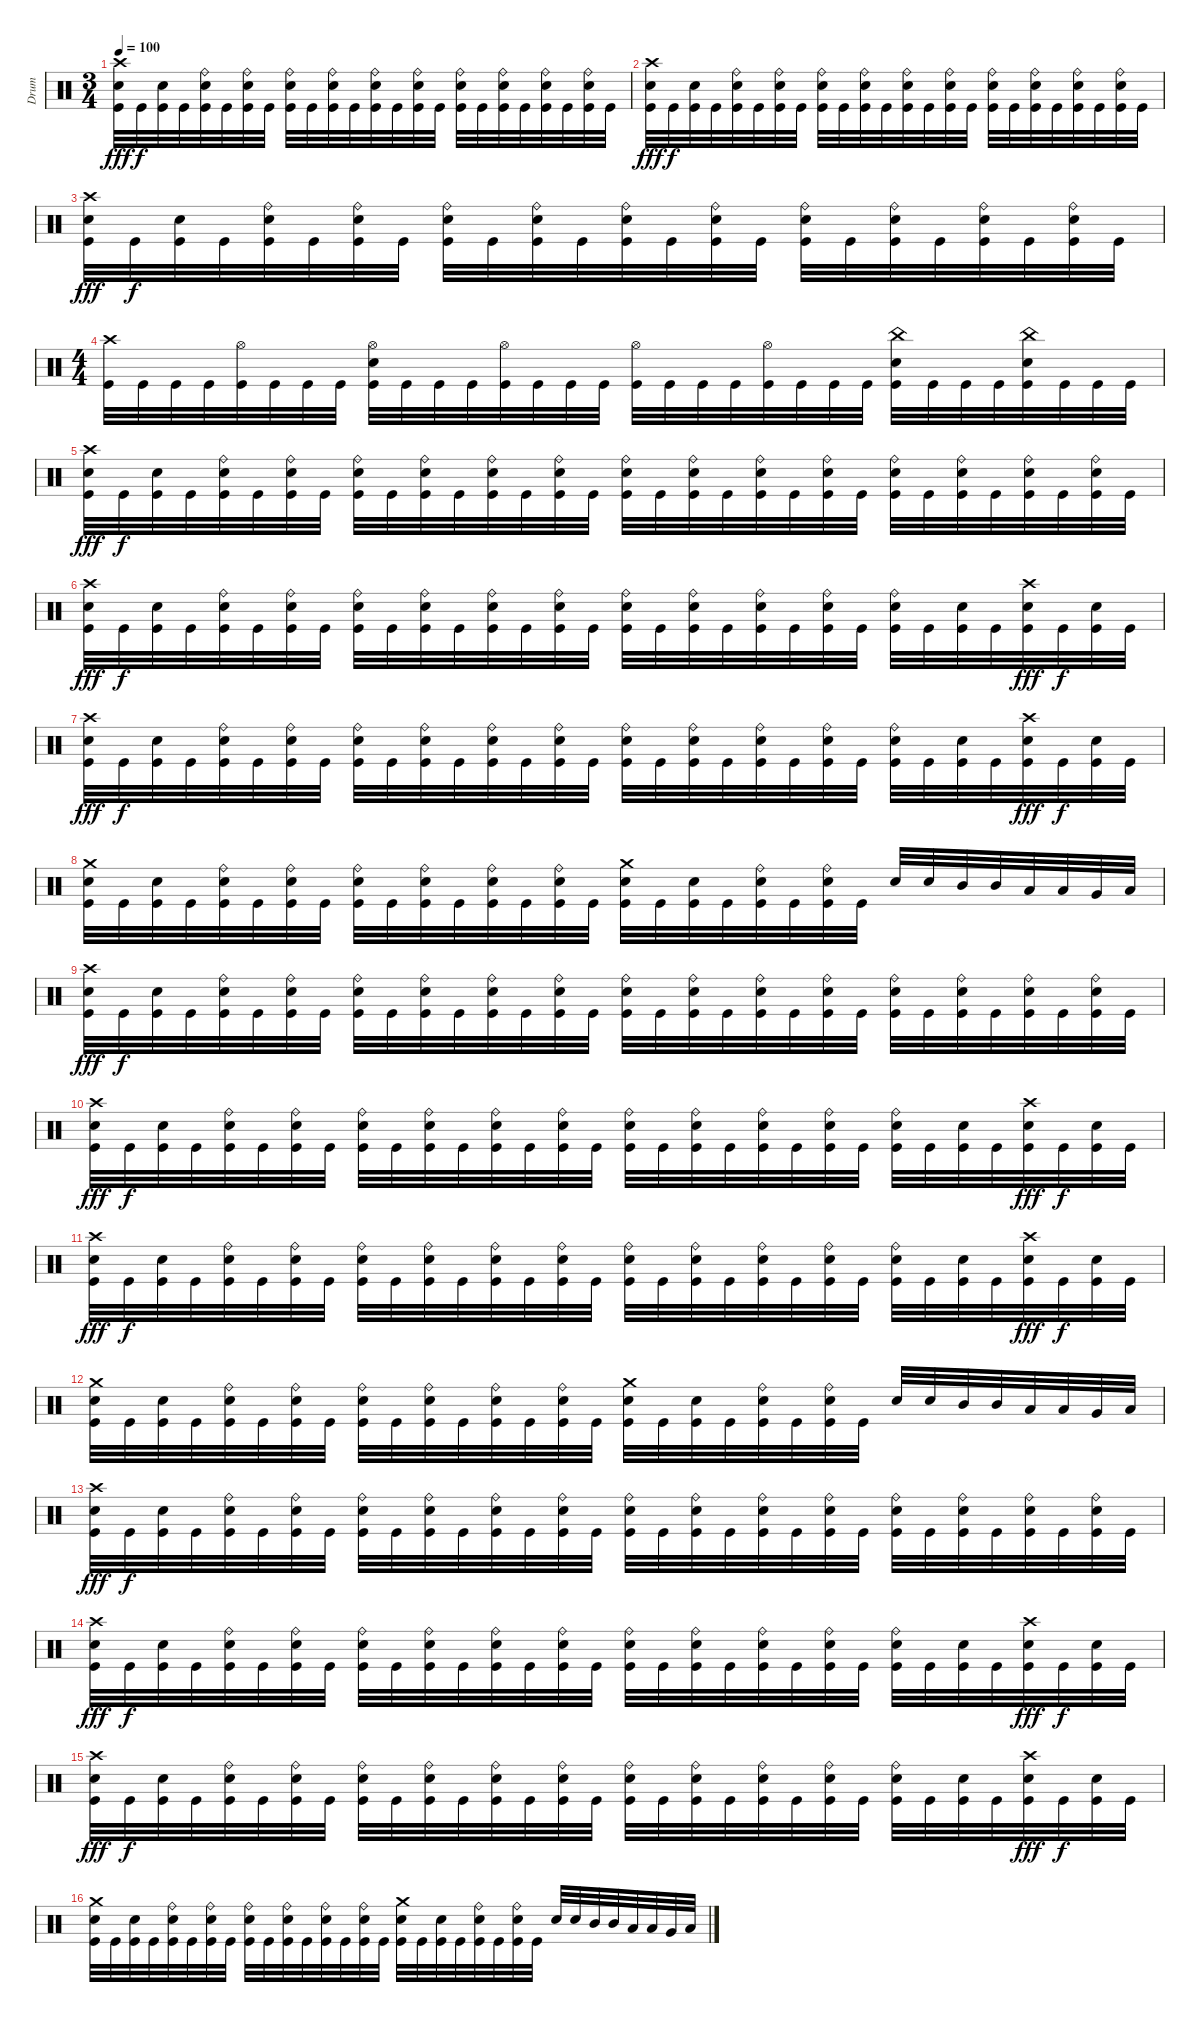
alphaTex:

\track ("Drum" "Drum") {instrument percussion}
\staff {score}
\articulation defaults
\ts (3 4)
\tempo 100
\clef neutral
\ks c
("Crash high (hit)" "Electric Snare (hit)" "Kick (hit)").32{dy fff} "Kick (hit)".32{dy f} ("Electric Snare (hit)" "Kick (hit)").32 "Kick (hit)".32 ("Ride (bell)" "Electric Snare (hit)" "Kick (hit)").32 "Kick (hit)".32 ("Ride (bell)" "Electric Snare (hit)" "Kick (hit)").32 "Kick (hit)".32 ("Ride (bell)" "Electric Snare (hit)" "Kick (hit)").32 "Kick (hit)".32 ("Ride (bell)" "Electric Snare (hit)" "Kick (hit)").32 "Kick (hit)".32 ("Ride (bell)" "Electric Snare (hit)" "Kick (hit)").32 "Kick (hit)".32 ("Ride (bell)" "Electric Snare (hit)" "Kick (hit)").32 "Kick (hit)".32 ("Ride (bell)" "Electric Snare (hit)" "Kick (hit)").32 "Kick (hit)".32 ("Ride (bell)" "Electric Snare (hit)" "Kick (hit)").32 "Kick (hit)".32 ("Ride (bell)" "Electric Snare (hit)" "Kick (hit)").32 "Kick (hit)".32 ("Ride (bell)" "Electric Snare (hit)" "Kick (hit)").32 "Kick (hit)".32 |
("Crash high (hit)" "Electric Snare (hit)" "Kick (hit)").32{dy fff} "Kick (hit)".32{dy f} ("Electric Snare (hit)" "Kick (hit)").32 "Kick (hit)".32 ("Ride (bell)" "Electric Snare (hit)" "Kick (hit)").32 "Kick (hit)".32 ("Ride (bell)" "Electric Snare (hit)" "Kick (hit)").32 "Kick (hit)".32 ("Ride (bell)" "Electric Snare (hit)" "Kick (hit)").32 "Kick (hit)".32 ("Ride (bell)" "Electric Snare (hit)" "Kick (hit)").32 "Kick (hit)".32 ("Ride (bell)" "Electric Snare (hit)" "Kick (hit)").32 "Kick (hit)".32 ("Ride (bell)" "Electric Snare (hit)" "Kick (hit)").32 "Kick (hit)".32 ("Ride (bell)" "Electric Snare (hit)" "Kick (hit)").32 "Kick (hit)".32 ("Ride (bell)" "Electric Snare (hit)" "Kick (hit)").32 "Kick (hit)".32 ("Ride (bell)" "Electric Snare (hit)" "Kick (hit)").32 "Kick (hit)".32 ("Ride (bell)" "Electric Snare (hit)" "Kick (hit)").32 "Kick (hit)".32 |
("Crash high (hit)" "Electric Snare (hit)" "Kick (hit)").32{dy fff} "Kick (hit)".32{dy f} ("Electric Snare (hit)" "Kick (hit)").32 "Kick (hit)".32 ("Ride (bell)" "Electric Snare (hit)" "Kick (hit)").32 "Kick (hit)".32 ("Ride (bell)" "Electric Snare (hit)" "Kick (hit)").32 "Kick (hit)".32 ("Ride (bell)" "Electric Snare (hit)" "Kick (hit)").32 "Kick (hit)".32 ("Ride (bell)" "Electric Snare (hit)" "Kick (hit)").32 "Kick (hit)".32 ("Ride (bell)" "Electric Snare (hit)" "Kick (hit)").32 "Kick (hit)".32 ("Ride (bell)" "Electric Snare (hit)" "Kick (hit)").32 "Kick (hit)".32 ("Ride (bell)" "Electric Snare (hit)" "Kick (hit)").32 "Kick (hit)".32 ("Ride (bell)" "Electric Snare (hit)" "Kick (hit)").32 "Kick (hit)".32 ("Ride (bell)" "Electric Snare (hit)" "Kick (hit)").32 "Kick (hit)".32 ("Ride (bell)" "Electric Snare (hit)" "Kick (hit)").32 "Kick (hit)".32 |
\ts (4 4)
("Crash high (hit)" "Kick (hit)").32 "Kick (hit)".32 "Kick (hit)".32 "Kick (hit)".32 ("Hi-Hat (open)" "Kick (hit)").32 "Kick (hit)".32 "Kick (hit)".32 "Kick (hit)".32 ("Hi-Hat (open)" "Electric Snare (hit)" "Kick (hit)").32 "Kick (hit)".32 "Kick (hit)".32 "Kick (hit)".32 ("Hi-Hat (open)" "Kick (hit)").32 "Kick (hit)".32 "Kick (hit)".32 "Kick (hit)".32 ("Hi-Hat (open)" "Kick (hit)").32 "Kick (hit)".32 "Kick (hit)".32 "Kick (hit)".32 ("Hi-Hat (open)" "Kick (hit)").32 "Kick (hit)".32 "Kick (hit)".32 "Kick (hit)".32 ("China (hit)" "Electric Snare (hit)" "Kick (hit)").32 "Kick (hit)".32 "Kick (hit)".32 "Kick (hit)".32 ("China (hit)" "Electric Snare (hit)" "Kick (hit)").32 "Kick (hit)".32 "Kick (hit)".32 "Kick (hit)".32 |
("Crash high (hit)" "Electric Snare (hit)" "Kick (hit)").32{dy fff} "Kick (hit)".32{dy f} ("Electric Snare (hit)" "Kick (hit)").32 "Kick (hit)".32 ("Ride (bell)" "Electric Snare (hit)" "Kick (hit)").32 "Kick (hit)".32 ("Ride (bell)" "Electric Snare (hit)" "Kick (hit)").32 "Kick (hit)".32 ("Ride (bell)" "Electric Snare (hit)" "Kick (hit)").32 "Kick (hit)".32 ("Ride (bell)" "Electric Snare (hit)" "Kick (hit)").32 "Kick (hit)".32 ("Ride (bell)" "Electric Snare (hit)" "Kick (hit)").32 "Kick (hit)".32 ("Ride (bell)" "Electric Snare (hit)" "Kick (hit)").32 "Kick (hit)".32 ("Ride (bell)" "Electric Snare (hit)" "Kick (hit)").32 "Kick (hit)".32 ("Ride (bell)" "Electric Snare (hit)" "Kick (hit)").32 "Kick (hit)".32 ("Ride (bell)" "Electric Snare (hit)" "Kick (hit)").32 "Kick (hit)".32 ("Ride (bell)" "Electric Snare (hit)" "Kick (hit)").32 "Kick (hit)".32 ("Ride (bell)" "Electric Snare (hit)" "Kick (hit)").32 "Kick (hit)".32 ("Ride (bell)" "Electric Snare (hit)" "Kick (hit)").32 "Kick (hit)".32 ("Ride (bell)" "Electric Snare (hit)" "Kick (hit)").32 "Kick (hit)".32 ("Ride (bell)" "Electric Snare (hit)" "Kick (hit)").32 "Kick (hit)".32 |
("Crash high (hit)" "Electric Snare (hit)" "Kick (hit)").32{dy fff} "Kick (hit)".32{dy f} ("Electric Snare (hit)" "Kick (hit)").32 "Kick (hit)".32 ("Ride (bell)" "Electric Snare (hit)" "Kick (hit)").32 "Kick (hit)".32 ("Ride (bell)" "Electric Snare (hit)" "Kick (hit)").32 "Kick (hit)".32 ("Ride (bell)" "Electric Snare (hit)" "Kick (hit)").32 "Kick (hit)".32 ("Ride (bell)" "Electric Snare (hit)" "Kick (hit)").32 "Kick (hit)".32 ("Ride (bell)" "Electric Snare (hit)" "Kick (hit)").32 "Kick (hit)".32 ("Ride (bell)" "Electric Snare (hit)" "Kick (hit)").32 "Kick (hit)".32 ("Ride (bell)" "Electric Snare (hit)" "Kick (hit)").32 "Kick (hit)".32 ("Ride (bell)" "Electric Snare (hit)" "Kick (hit)").32 "Kick (hit)".32 ("Ride (bell)" "Electric Snare (hit)" "Kick (hit)").32 "Kick (hit)".32 ("Ride (bell)" "Electric Snare (hit)" "Kick (hit)").32 "Kick (hit)".32 ("Ride (bell)" "Electric Snare (hit)" "Kick (hit)").32 "Kick (hit)".32 ("Electric Snare (hit)" "Kick (hit)").32 "Kick (hit)".32 ("Crash high (hit)" "Electric Snare (hit)" "Kick (hit)").32{dy fff} "Kick (hit)".32{dy f} ("Electric Snare (hit)" "Kick (hit)").32 "Kick (hit)".32 |
("Crash high (hit)" "Electric Snare (hit)" "Kick (hit)").32{dy fff} "Kick (hit)".32{dy f} ("Electric Snare (hit)" "Kick (hit)").32 "Kick (hit)".32 ("Ride (bell)" "Electric Snare (hit)" "Kick (hit)").32 "Kick (hit)".32 ("Ride (bell)" "Electric Snare (hit)" "Kick (hit)").32 "Kick (hit)".32 ("Ride (bell)" "Electric Snare (hit)" "Kick (hit)").32 "Kick (hit)".32 ("Ride (bell)" "Electric Snare (hit)" "Kick (hit)").32 "Kick (hit)".32 ("Ride (bell)" "Electric Snare (hit)" "Kick (hit)").32 "Kick (hit)".32 ("Ride (bell)" "Electric Snare (hit)" "Kick (hit)").32 "Kick (hit)".32 ("Ride (bell)" "Electric Snare (hit)" "Kick (hit)").32 "Kick (hit)".32 ("Ride (bell)" "Electric Snare (hit)" "Kick (hit)").32 "Kick (hit)".32 ("Ride (bell)" "Electric Snare (hit)" "Kick (hit)").32 "Kick (hit)".32 ("Ride (bell)" "Electric Snare (hit)" "Kick (hit)").32 "Kick (hit)".32 ("Ride (bell)" "Electric Snare (hit)" "Kick (hit)").32 "Kick (hit)".32 ("Electric Snare (hit)" "Kick (hit)").32 "Kick (hit)".32 ("Crash high (hit)" "Electric Snare (hit)" "Kick (hit)").32{dy fff} "Kick (hit)".32{dy f} ("Electric Snare (hit)" "Kick (hit)").32 "Kick (hit)".32 |
("Crash medium (hit)" "Electric Snare (hit)" "Kick (hit)").32 "Kick (hit)".32 ("Electric Snare (hit)" "Kick (hit)").32 "Kick (hit)".32 ("Ride (bell)" "Electric Snare (hit)" "Kick (hit)").32 "Kick (hit)".32 ("Ride (bell)" "Electric Snare (hit)" "Kick (hit)").32 "Kick (hit)".32 ("Ride (bell)" "Electric Snare (hit)" "Kick (hit)").32 "Kick (hit)".32 ("Ride (bell)" "Electric Snare (hit)" "Kick (hit)").32 "Kick (hit)".32 ("Ride (bell)" "Electric Snare (hit)" "Kick (hit)").32 "Kick (hit)".32 ("Ride (bell)" "Electric Snare (hit)" "Kick (hit)").32 "Kick (hit)".32 ("Crash medium (hit)" "Electric Snare (hit)" "Kick (hit)").32 "Kick (hit)".32 ("Electric Snare (hit)" "Kick (hit)").32 "Kick (hit)".32 ("Ride (bell)" "Electric Snare (hit)" "Kick (hit)").32 "Kick (hit)".32 ("Ride (bell)" "Electric Snare (hit)" "Kick (hit)").32 "Kick (hit)".32 "Electric Snare (hit)".32 "Electric Snare (hit)".32 "Mid Tom (hit)".32 "Mid Tom (hit)".32 "Low Tom (hit)".32 "Low Tom (hit)".32 "Very Low Tom (hit)".32 "Low Floor Tom (hit)".32 |
("Crash high (hit)" "Electric Snare (hit)" "Kick (hit)").32{dy fff} "Kick (hit)".32{dy f} ("Electric Snare (hit)" "Kick (hit)").32 "Kick (hit)".32 ("Ride (bell)" "Electric Snare (hit)" "Kick (hit)").32 "Kick (hit)".32 ("Ride (bell)" "Electric Snare (hit)" "Kick (hit)").32 "Kick (hit)".32 ("Ride (bell)" "Electric Snare (hit)" "Kick (hit)").32 "Kick (hit)".32 ("Ride (bell)" "Electric Snare (hit)" "Kick (hit)").32 "Kick (hit)".32 ("Ride (bell)" "Electric Snare (hit)" "Kick (hit)").32 "Kick (hit)".32 ("Ride (bell)" "Electric Snare (hit)" "Kick (hit)").32 "Kick (hit)".32 ("Ride (bell)" "Electric Snare (hit)" "Kick (hit)").32 "Kick (hit)".32 ("Ride (bell)" "Electric Snare (hit)" "Kick (hit)").32 "Kick (hit)".32 ("Ride (bell)" "Electric Snare (hit)" "Kick (hit)").32 "Kick (hit)".32 ("Ride (bell)" "Electric Snare (hit)" "Kick (hit)").32 "Kick (hit)".32 ("Ride (bell)" "Electric Snare (hit)" "Kick (hit)").32 "Kick (hit)".32 ("Ride (bell)" "Electric Snare (hit)" "Kick (hit)").32 "Kick (hit)".32 ("Ride (bell)" "Electric Snare (hit)" "Kick (hit)").32 "Kick (hit)".32 ("Ride (bell)" "Electric Snare (hit)" "Kick (hit)").32 "Kick (hit)".32 |
("Crash high (hit)" "Electric Snare (hit)" "Kick (hit)").32{dy fff} "Kick (hit)".32{dy f} ("Electric Snare (hit)" "Kick (hit)").32 "Kick (hit)".32 ("Ride (bell)" "Electric Snare (hit)" "Kick (hit)").32 "Kick (hit)".32 ("Ride (bell)" "Electric Snare (hit)" "Kick (hit)").32 "Kick (hit)".32 ("Ride (bell)" "Electric Snare (hit)" "Kick (hit)").32 "Kick (hit)".32 ("Ride (bell)" "Electric Snare (hit)" "Kick (hit)").32 "Kick (hit)".32 ("Ride (bell)" "Electric Snare (hit)" "Kick (hit)").32 "Kick (hit)".32 ("Ride (bell)" "Electric Snare (hit)" "Kick (hit)").32 "Kick (hit)".32 ("Ride (bell)" "Electric Snare (hit)" "Kick (hit)").32 "Kick (hit)".32 ("Ride (bell)" "Electric Snare (hit)" "Kick (hit)").32 "Kick (hit)".32 ("Ride (bell)" "Electric Snare (hit)" "Kick (hit)").32 "Kick (hit)".32 ("Ride (bell)" "Electric Snare (hit)" "Kick (hit)").32 "Kick (hit)".32 ("Ride (bell)" "Electric Snare (hit)" "Kick (hit)").32 "Kick (hit)".32 ("Electric Snare (hit)" "Kick (hit)").32 "Kick (hit)".32 ("Crash high (hit)" "Electric Snare (hit)" "Kick (hit)").32{dy fff} "Kick (hit)".32{dy f} ("Electric Snare (hit)" "Kick (hit)").32 "Kick (hit)".32 |
("Crash high (hit)" "Electric Snare (hit)" "Kick (hit)").32{dy fff} "Kick (hit)".32{dy f} ("Electric Snare (hit)" "Kick (hit)").32 "Kick (hit)".32 ("Ride (bell)" "Electric Snare (hit)" "Kick (hit)").32 "Kick (hit)".32 ("Ride (bell)" "Electric Snare (hit)" "Kick (hit)").32 "Kick (hit)".32 ("Ride (bell)" "Electric Snare (hit)" "Kick (hit)").32 "Kick (hit)".32 ("Ride (bell)" "Electric Snare (hit)" "Kick (hit)").32 "Kick (hit)".32 ("Ride (bell)" "Electric Snare (hit)" "Kick (hit)").32 "Kick (hit)".32 ("Ride (bell)" "Electric Snare (hit)" "Kick (hit)").32 "Kick (hit)".32 ("Ride (bell)" "Electric Snare (hit)" "Kick (hit)").32 "Kick (hit)".32 ("Ride (bell)" "Electric Snare (hit)" "Kick (hit)").32 "Kick (hit)".32 ("Ride (bell)" "Electric Snare (hit)" "Kick (hit)").32 "Kick (hit)".32 ("Ride (bell)" "Electric Snare (hit)" "Kick (hit)").32 "Kick (hit)".32 ("Ride (bell)" "Electric Snare (hit)" "Kick (hit)").32 "Kick (hit)".32 ("Electric Snare (hit)" "Kick (hit)").32 "Kick (hit)".32 ("Crash high (hit)" "Electric Snare (hit)" "Kick (hit)").32{dy fff} "Kick (hit)".32{dy f} ("Electric Snare (hit)" "Kick (hit)").32 "Kick (hit)".32 |
("Crash medium (hit)" "Electric Snare (hit)" "Kick (hit)").32 "Kick (hit)".32 ("Electric Snare (hit)" "Kick (hit)").32 "Kick (hit)".32 ("Ride (bell)" "Electric Snare (hit)" "Kick (hit)").32 "Kick (hit)".32 ("Ride (bell)" "Electric Snare (hit)" "Kick (hit)").32 "Kick (hit)".32 ("Ride (bell)" "Electric Snare (hit)" "Kick (hit)").32 "Kick (hit)".32 ("Ride (bell)" "Electric Snare (hit)" "Kick (hit)").32 "Kick (hit)".32 ("Ride (bell)" "Electric Snare (hit)" "Kick (hit)").32 "Kick (hit)".32 ("Ride (bell)" "Electric Snare (hit)" "Kick (hit)").32 "Kick (hit)".32 ("Crash medium (hit)" "Electric Snare (hit)" "Kick (hit)").32 "Kick (hit)".32 ("Electric Snare (hit)" "Kick (hit)").32 "Kick (hit)".32 ("Ride (bell)" "Electric Snare (hit)" "Kick (hit)").32 "Kick (hit)".32 ("Ride (bell)" "Electric Snare (hit)" "Kick (hit)").32 "Kick (hit)".32 "Electric Snare (hit)".32 "Electric Snare (hit)".32 "Mid Tom (hit)".32 "Mid Tom (hit)".32 "Low Tom (hit)".32 "Low Tom (hit)".32 "Very Low Tom (hit)".32 "Low Floor Tom (hit)".32 |
("Crash high (hit)" "Electric Snare (hit)" "Kick (hit)").32{dy fff} "Kick (hit)".32{dy f} ("Electric Snare (hit)" "Kick (hit)").32 "Kick (hit)".32 ("Ride (bell)" "Electric Snare (hit)" "Kick (hit)").32 "Kick (hit)".32 ("Ride (bell)" "Electric Snare (hit)" "Kick (hit)").32 "Kick (hit)".32 ("Ride (bell)" "Electric Snare (hit)" "Kick (hit)").32 "Kick (hit)".32 ("Ride (bell)" "Electric Snare (hit)" "Kick (hit)").32 "Kick (hit)".32 ("Ride (bell)" "Electric Snare (hit)" "Kick (hit)").32 "Kick (hit)".32 ("Ride (bell)" "Electric Snare (hit)" "Kick (hit)").32 "Kick (hit)".32 ("Ride (bell)" "Electric Snare (hit)" "Kick (hit)").32 "Kick (hit)".32 ("Ride (bell)" "Electric Snare (hit)" "Kick (hit)").32 "Kick (hit)".32 ("Ride (bell)" "Electric Snare (hit)" "Kick (hit)").32 "Kick (hit)".32 ("Ride (bell)" "Electric Snare (hit)" "Kick (hit)").32 "Kick (hit)".32 ("Ride (bell)" "Electric Snare (hit)" "Kick (hit)").32 "Kick (hit)".32 ("Ride (bell)" "Electric Snare (hit)" "Kick (hit)").32 "Kick (hit)".32 ("Ride (bell)" "Electric Snare (hit)" "Kick (hit)").32 "Kick (hit)".32 ("Ride (bell)" "Electric Snare (hit)" "Kick (hit)").32 "Kick (hit)".32 |
("Crash high (hit)" "Electric Snare (hit)" "Kick (hit)").32{dy fff} "Kick (hit)".32{dy f} ("Electric Snare (hit)" "Kick (hit)").32 "Kick (hit)".32 ("Ride (bell)" "Electric Snare (hit)" "Kick (hit)").32 "Kick (hit)".32 ("Ride (bell)" "Electric Snare (hit)" "Kick (hit)").32 "Kick (hit)".32 ("Ride (bell)" "Electric Snare (hit)" "Kick (hit)").32 "Kick (hit)".32 ("Ride (bell)" "Electric Snare (hit)" "Kick (hit)").32 "Kick (hit)".32 ("Ride (bell)" "Electric Snare (hit)" "Kick (hit)").32 "Kick (hit)".32 ("Ride (bell)" "Electric Snare (hit)" "Kick (hit)").32 "Kick (hit)".32 ("Ride (bell)" "Electric Snare (hit)" "Kick (hit)").32 "Kick (hit)".32 ("Ride (bell)" "Electric Snare (hit)" "Kick (hit)").32 "Kick (hit)".32 ("Ride (bell)" "Electric Snare (hit)" "Kick (hit)").32 "Kick (hit)".32 ("Ride (bell)" "Electric Snare (hit)" "Kick (hit)").32 "Kick (hit)".32 ("Ride (bell)" "Electric Snare (hit)" "Kick (hit)").32 "Kick (hit)".32 ("Electric Snare (hit)" "Kick (hit)").32 "Kick (hit)".32 ("Crash high (hit)" "Electric Snare (hit)" "Kick (hit)").32{dy fff} "Kick (hit)".32{dy f} ("Electric Snare (hit)" "Kick (hit)").32 "Kick (hit)".32 |
("Crash high (hit)" "Electric Snare (hit)" "Kick (hit)").32{dy fff} "Kick (hit)".32{dy f} ("Electric Snare (hit)" "Kick (hit)").32 "Kick (hit)".32 ("Ride (bell)" "Electric Snare (hit)" "Kick (hit)").32 "Kick (hit)".32 ("Ride (bell)" "Electric Snare (hit)" "Kick (hit)").32 "Kick (hit)".32 ("Ride (bell)" "Electric Snare (hit)" "Kick (hit)").32 "Kick (hit)".32 ("Ride (bell)" "Electric Snare (hit)" "Kick (hit)").32 "Kick (hit)".32 ("Ride (bell)" "Electric Snare (hit)" "Kick (hit)").32 "Kick (hit)".32 ("Ride (bell)" "Electric Snare (hit)" "Kick (hit)").32 "Kick (hit)".32 ("Ride (bell)" "Electric Snare (hit)" "Kick (hit)").32 "Kick (hit)".32 ("Ride (bell)" "Electric Snare (hit)" "Kick (hit)").32 "Kick (hit)".32 ("Ride (bell)" "Electric Snare (hit)" "Kick (hit)").32 "Kick (hit)".32 ("Ride (bell)" "Electric Snare (hit)" "Kick (hit)").32 "Kick (hit)".32 ("Ride (bell)" "Electric Snare (hit)" "Kick (hit)").32 "Kick (hit)".32 ("Electric Snare (hit)" "Kick (hit)").32 "Kick (hit)".32 ("Crash high (hit)" "Electric Snare (hit)" "Kick (hit)").32{dy fff} "Kick (hit)".32{dy f} ("Electric Snare (hit)" "Kick (hit)").32 "Kick (hit)".32 |
("Crash medium (hit)" "Electric Snare (hit)" "Kick (hit)").32 "Kick (hit)".32 ("Electric Snare (hit)" "Kick (hit)").32 "Kick (hit)".32 ("Ride (bell)" "Electric Snare (hit)" "Kick (hit)").32 "Kick (hit)".32 ("Ride (bell)" "Electric Snare (hit)" "Kick (hit)").32 "Kick (hit)".32 ("Ride (bell)" "Electric Snare (hit)" "Kick (hit)").32 "Kick (hit)".32 ("Ride (bell)" "Electric Snare (hit)" "Kick (hit)").32 "Kick (hit)".32 ("Ride (bell)" "Electric Snare (hit)" "Kick (hit)").32 "Kick (hit)".32 ("Ride (bell)" "Electric Snare (hit)" "Kick (hit)").32 "Kick (hit)".32 ("Crash medium (hit)" "Electric Snare (hit)" "Kick (hit)").32 "Kick (hit)".32 ("Electric Snare (hit)" "Kick (hit)").32 "Kick (hit)".32 ("Ride (bell)" "Electric Snare (hit)" "Kick (hit)").32 "Kick (hit)".32 ("Ride (bell)" "Electric Snare (hit)" "Kick (hit)").32 "Kick (hit)".32 "Electric Snare (hit)".32 "Electric Snare (hit)".32 "Mid Tom (hit)".32 "Mid Tom (hit)".32 "Low Tom (hit)".32 "Low Tom (hit)".32 "Very Low Tom (hit)".32 "Low Floor Tom (hit)".32
